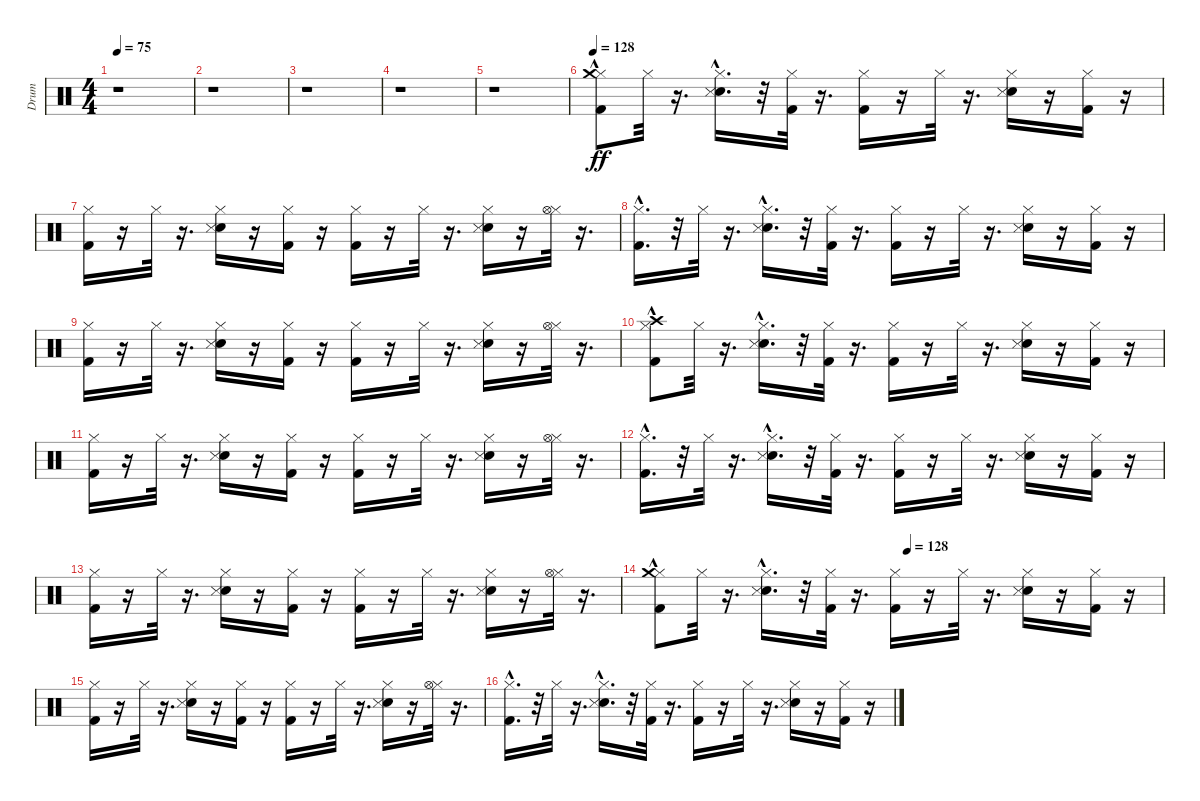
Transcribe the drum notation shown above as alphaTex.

\track ("Drum" "Drum") {instrument percussion}
\staff {score}
\articulation defaults
\ts (4 4)
\tempo 75
\clef neutral
\ks c
r.1{dy ff} |
r.1 |
r.1 |
r.1 |
r.1 |
\tempo 128
("Kick (hit) 2"{hac} "Hi-Hat (closed)" "Crash medium (hit)").8 "Hi-Hat (closed)".32 r.16{d} ("Electric Snare (hit)" "Hi-Hat (closed)" "Snare (side stick) 3"{hac}).16{d} r.32 ("Kick (hit) 2" "Hi-Hat (closed)").32 r.16{d} ("Kick (hit) 2" "Hi-Hat (closed)").16 r.16 "Hi-Hat (closed)".32 r.16{d} ("Electric Snare (hit)" "Hi-Hat (closed)" "Snare (side stick) 3").16 r.16 ("Kick (hit) 2" "Hi-Hat (closed)").16 r.16 |
("Hi-Hat (closed)" "Kick (hit) 2").16 r.16 "Hi-Hat (closed)".32 r.16{d} ("Electric Snare (hit)" "Hi-Hat (closed)" "Snare (side stick) 3").16 r.16 ("Kick (hit) 2" "Hi-Hat (closed)").16 r.16 ("Kick (hit) 2" "Hi-Hat (closed)").16 r.16 "Hi-Hat (closed)".32 r.16{d} ("Electric Snare (hit)" "Hi-Hat (closed)" "Snare (side stick) 3").16 r.16 ("Hi-Hat (closed)" "Hi-Hat (open)").32 r.16{d} |
("Kick (hit) 2"{hac} "Hi-Hat (closed)").16{d} r.32 "Hi-Hat (closed)".32 r.16{d} ("Electric Snare (hit)" "Hi-Hat (closed)" "Snare (side stick) 3"{hac}).16{d} r.32 ("Kick (hit) 2" "Hi-Hat (closed)").32 r.16{d} ("Kick (hit) 2" "Hi-Hat (closed)").16 r.16 "Hi-Hat (closed)".32 r.16{d} ("Electric Snare (hit)" "Hi-Hat (closed)" "Snare (side stick) 3").16 r.16 ("Kick (hit) 2" "Hi-Hat (closed)").16 r.16 |
("Hi-Hat (closed)" "Kick (hit) 2").16 r.16 "Hi-Hat (closed)".32 r.16{d} ("Electric Snare (hit)" "Hi-Hat (closed)" "Snare (side stick) 3").16 r.16 ("Kick (hit) 2" "Hi-Hat (closed)").16 r.16 ("Kick (hit) 2" "Hi-Hat (closed)").16 r.16 "Hi-Hat (closed)".32 r.16{d} ("Electric Snare (hit)" "Hi-Hat (closed)" "Snare (side stick) 3").16 r.16 ("Hi-Hat (closed)" "Hi-Hat (open)").32 r.16{d} |
("Kick (hit) 2"{hac} "Hi-Hat (closed)" "Crash high (hit)").8 "Hi-Hat (closed)".32 r.16{d} ("Electric Snare (hit)" "Hi-Hat (closed)" "Snare (side stick) 3"{hac}).16{d} r.32 ("Kick (hit) 2" "Hi-Hat (closed)").32 r.16{d} ("Kick (hit) 2" "Hi-Hat (closed)").16 r.16 "Hi-Hat (closed)".32 r.16{d} ("Electric Snare (hit)" "Hi-Hat (closed)" "Snare (side stick) 3").16 r.16 ("Kick (hit) 2" "Hi-Hat (closed)").16 r.16 |
("Hi-Hat (closed)" "Kick (hit) 2").16 r.16 "Hi-Hat (closed)".32 r.16{d} ("Electric Snare (hit)" "Hi-Hat (closed)" "Snare (side stick) 3").16 r.16 ("Kick (hit) 2" "Hi-Hat (closed)").16 r.16 ("Kick (hit) 2" "Hi-Hat (closed)").16 r.16 "Hi-Hat (closed)".32 r.16{d} ("Electric Snare (hit)" "Hi-Hat (closed)" "Snare (side stick) 3").16 r.16 ("Hi-Hat (closed)" "Hi-Hat (open)").32 r.16{d} |
("Kick (hit) 2"{hac} "Hi-Hat (closed)").16{d} r.32 "Hi-Hat (closed)".32 r.16{d} ("Electric Snare (hit)" "Hi-Hat (closed)" "Snare (side stick) 3"{hac}).16{d} r.32 ("Kick (hit) 2" "Hi-Hat (closed)").32 r.16{d} ("Kick (hit) 2" "Hi-Hat (closed)").16 r.16 "Hi-Hat (closed)".32 r.16{d} ("Electric Snare (hit)" "Hi-Hat (closed)" "Snare (side stick) 3").16 r.16 ("Kick (hit) 2" "Hi-Hat (closed)").16 r.16 |
("Hi-Hat (closed)" "Kick (hit) 2").16 r.16 "Hi-Hat (closed)".32 r.16{d} ("Electric Snare (hit)" "Hi-Hat (closed)" "Snare (side stick) 3").16 r.16 ("Kick (hit) 2" "Hi-Hat (closed)").16 r.16 ("Kick (hit) 2" "Hi-Hat (closed)").16 r.16 "Hi-Hat (closed)".32 r.16{d} ("Electric Snare (hit)" "Hi-Hat (closed)" "Snare (side stick) 3").16 r.16 ("Hi-Hat (closed)" "Hi-Hat (open)").32 r.16{d} |
\tempo (128 0.5)
("Kick (hit) 2"{hac} "Hi-Hat (closed)" "Crash medium (hit)").8 "Hi-Hat (closed)".32 r.16{d} ("Electric Snare (hit)" "Hi-Hat (closed)" "Snare (side stick) 3"{hac}).16{d} r.32 ("Kick (hit) 2" "Hi-Hat (closed)").32 r.16{d} ("Kick (hit) 2" "Hi-Hat (closed)").16 r.16 "Hi-Hat (closed)".32 r.16{d} ("Electric Snare (hit)" "Hi-Hat (closed)" "Snare (side stick) 3").16 r.16 ("Kick (hit) 2" "Hi-Hat (closed)").16 r.16 |
("Hi-Hat (closed)" "Kick (hit) 2").16 r.16 "Hi-Hat (closed)".32 r.16{d} ("Electric Snare (hit)" "Hi-Hat (closed)" "Snare (side stick) 3").16 r.16 ("Kick (hit) 2" "Hi-Hat (closed)").16 r.16 ("Kick (hit) 2" "Hi-Hat (closed)").16 r.16 "Hi-Hat (closed)".32 r.16{d} ("Electric Snare (hit)" "Hi-Hat (closed)" "Snare (side stick) 3").16 r.16 ("Hi-Hat (closed)" "Hi-Hat (open)").32 r.16{d} |
("Kick (hit) 2"{hac} "Hi-Hat (closed)").16{d} r.32 "Hi-Hat (closed)".32 r.16{d} ("Electric Snare (hit)" "Hi-Hat (closed)" "Snare (side stick) 3"{hac}).16{d} r.32 ("Kick (hit) 2" "Hi-Hat (closed)").32 r.16{d} ("Kick (hit) 2" "Hi-Hat (closed)").16 r.16 "Hi-Hat (closed)".32 r.16{d} ("Electric Snare (hit)" "Hi-Hat (closed)" "Snare (side stick) 3").16 r.16 ("Kick (hit) 2" "Hi-Hat (closed)").16 r.16
